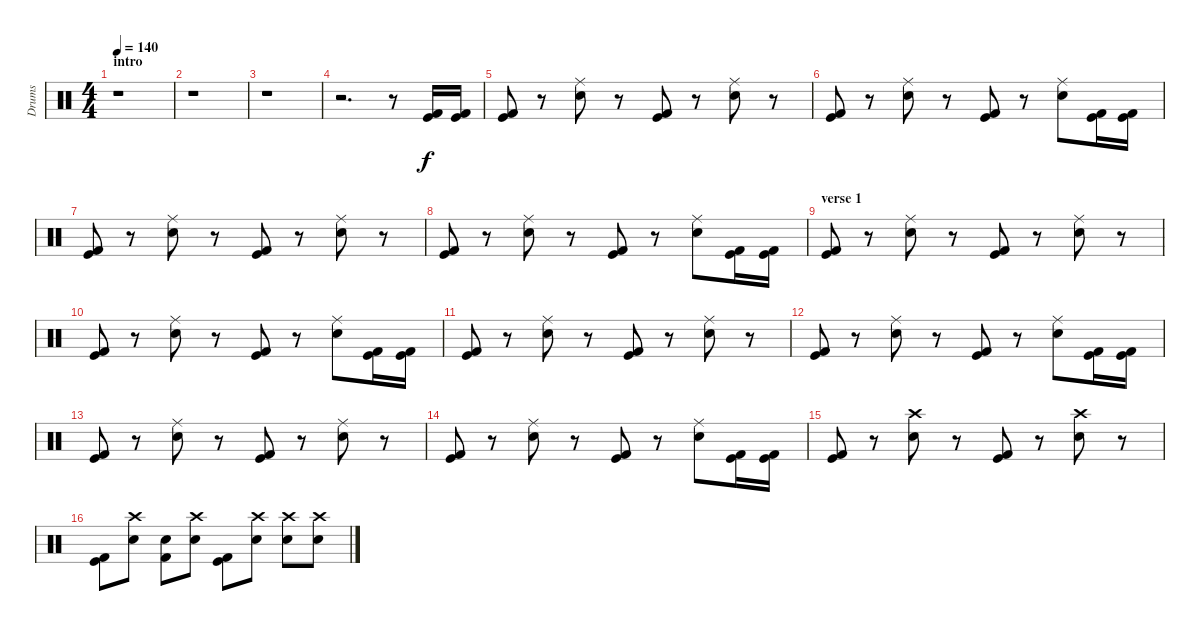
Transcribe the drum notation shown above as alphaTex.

\track ("Drums" "Drums") {instrument percussion}
\staff {score}
\articulation defaults
\ts (4 4)
\section ("" "intro")
\tempo 140
\clef neutral
\ks c
r.1{dy f} |
r.1 |
r.1 |
r.2{d} r.8 ("Kick (hit)" "Kick (hit) 2").16 ("Kick (hit)" "Kick (hit) 2").16 |
("Kick (hit)" "Kick (hit) 2").8 r.8 ("Ride (middle)" "Electric Snare (hit)").8 r.8 ("Kick (hit)" "Kick (hit) 2").8 r.8 ("Ride (middle)" "Electric Snare (hit)").8 r.8 |
("Kick (hit)" "Kick (hit) 2").8 r.8 ("Ride (middle)" "Electric Snare (hit)").8 r.8 ("Kick (hit)" "Kick (hit) 2").8 r.8 ("Ride (middle)" "Electric Snare (hit)").8 ("Kick (hit)" "Kick (hit) 2").16 ("Kick (hit)" "Kick (hit) 2").16 |
("Kick (hit)" "Kick (hit) 2").8 r.8 ("Ride (middle)" "Electric Snare (hit)").8 r.8 ("Kick (hit)" "Kick (hit) 2").8 r.8 ("Ride (middle)" "Electric Snare (hit)").8 r.8 |
("Kick (hit)" "Kick (hit) 2").8 r.8 ("Ride (middle)" "Electric Snare (hit)").8 r.8 ("Kick (hit)" "Kick (hit) 2").8 r.8 ("Ride (middle)" "Electric Snare (hit)").8 ("Kick (hit)" "Kick (hit) 2").16 ("Kick (hit)" "Kick (hit) 2").16 |
\section ("" "verse 1")
("Kick (hit)" "Kick (hit) 2").8 r.8 ("Ride (middle)" "Electric Snare (hit)").8 r.8 ("Kick (hit)" "Kick (hit) 2").8 r.8 ("Ride (middle)" "Electric Snare (hit)").8 r.8 |
("Kick (hit)" "Kick (hit) 2").8 r.8 ("Ride (middle)" "Electric Snare (hit)").8 r.8 ("Kick (hit)" "Kick (hit) 2").8 r.8 ("Ride (middle)" "Electric Snare (hit)").8 ("Kick (hit)" "Kick (hit) 2").16 ("Kick (hit)" "Kick (hit) 2").16 |
("Kick (hit)" "Kick (hit) 2").8 r.8 ("Ride (middle)" "Electric Snare (hit)").8 r.8 ("Kick (hit)" "Kick (hit) 2").8 r.8 ("Ride (middle)" "Electric Snare (hit)").8 r.8 |
("Kick (hit)" "Kick (hit) 2").8 r.8 ("Ride (middle)" "Electric Snare (hit)").8 r.8 ("Kick (hit)" "Kick (hit) 2").8 r.8 ("Ride (middle)" "Electric Snare (hit)").8 ("Kick (hit)" "Kick (hit) 2").16 ("Kick (hit)" "Kick (hit) 2").16 |
("Kick (hit)" "Kick (hit) 2").8 r.8 ("Ride (middle)" "Electric Snare (hit)").8 r.8 ("Kick (hit)" "Kick (hit) 2").8 r.8 ("Ride (middle)" "Electric Snare (hit)").8 r.8 |
("Kick (hit)" "Kick (hit) 2").8 r.8 ("Ride (middle)" "Electric Snare (hit)").8 r.8 ("Kick (hit)" "Kick (hit) 2").8 r.8 ("Ride (middle)" "Electric Snare (hit)").8 ("Kick (hit)" "Kick (hit) 2").16 ("Kick (hit)" "Kick (hit) 2").16 |
("Kick (hit)" "Kick (hit) 2").8 r.8 ("Crash high (hit)" "Electric Snare (hit)").8 r.8 ("Kick (hit)" "Kick (hit) 2").8 r.8 ("Crash high (hit)" "Electric Snare (hit)").8 r.8 |
("Kick (hit)" "Kick (hit) 2").8 ("Crash high (hit)" "Electric Snare (hit)").8 ("Electric Snare (hit)" "Kick (hit) 2").8 ("Crash high (hit)" "Electric Snare (hit)").8 ("Kick (hit)" "Kick (hit) 2").8 ("Crash high (hit)" "Electric Snare (hit)").8 ("Crash high (hit)" "Electric Snare (hit)").8 ("Crash high (hit)" "Electric Snare (hit)").8
